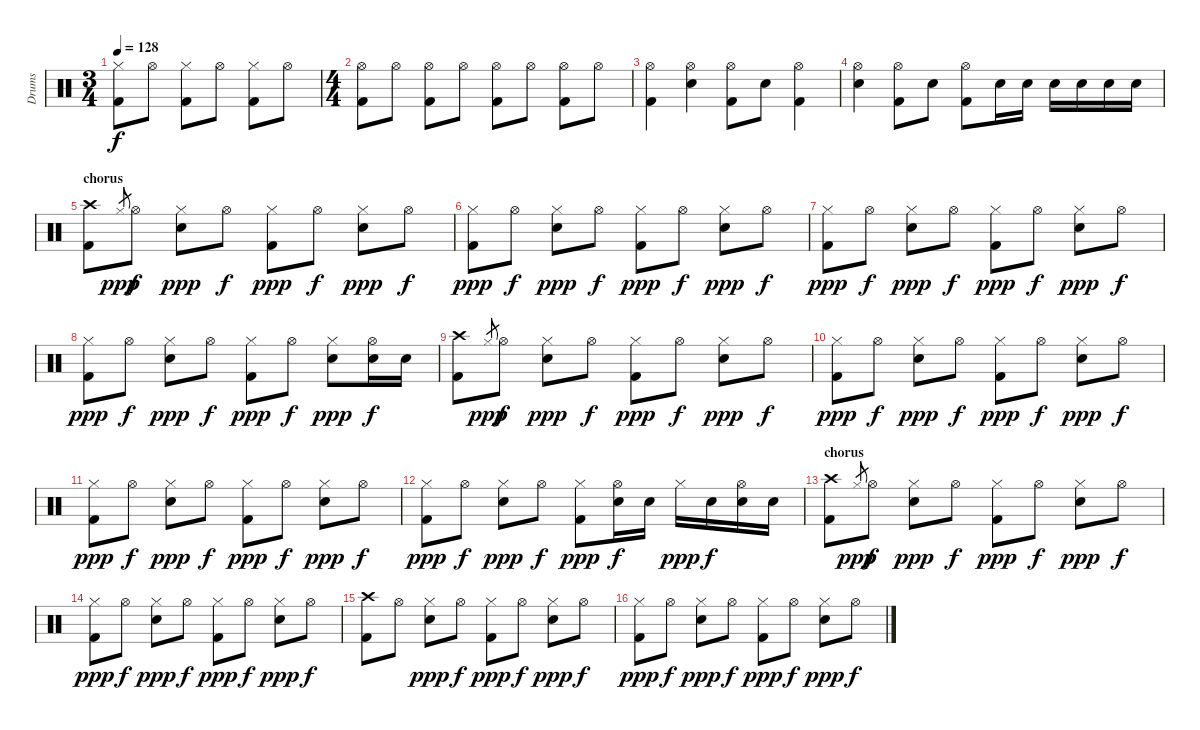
\track ("Drums" "Drums") {instrument percussion}
\staff {score}
\articulation defaults
\ts (3 4)
\tempo 128
\clef neutral
\ks c
("Hi-Hat (closed)" "Kick (hit) 2").8{dy f} "Hi-Hat (open)".8 ("Hi-Hat (closed)" "Kick (hit) 2").8 "Hi-Hat (open)".8 ("Hi-Hat (closed)" "Kick (hit) 2").8 "Hi-Hat (open)".8 |
\ts (4 4)
("Hi-Hat (open)" "Kick (hit) 2").8 "Hi-Hat (open)".8 ("Hi-Hat (open)" "Kick (hit) 2").8 "Hi-Hat (open)".8 ("Hi-Hat (open)" "Kick (hit) 2").8 "Hi-Hat (open)".8 ("Hi-Hat (open)" "Kick (hit) 2").8 "Hi-Hat (open)".8 |
("Hi-Hat (open)" "Kick (hit) 2").4 ("Hi-Hat (open)" "Snare (hit) 2").4 ("Hi-Hat (open)" "Kick (hit) 2").8 "Snare (hit) 2".8 ("Hi-Hat (open)" "Kick (hit) 2").4 |
("Hi-Hat (open)" "Snare (hit) 2").4 ("Hi-Hat (open)" "Kick (hit) 2").8 "Snare (hit) 2".8 ("Hi-Hat (open)" "Kick (hit) 2").8 "Snare (hit) 2".16 "Snare (hit) 2".16 "Snare (hit) 2".16 "Snare (hit) 2".16 "Snare (hit) 2".16 "Snare (hit) 2".16 |
\section ("" "chorus")
("Crash high (hit)" "Kick (hit) 2").8 "Hi-Hat (closed)".8{gr dy ppp} "Hi-Hat (open)".8{dy f} ("Hi-Hat (closed)" "Snare (hit) 2").8{dy ppp} "Hi-Hat (open)".8{dy f} ("Hi-Hat (closed)" "Kick (hit) 2").8{dy ppp} "Hi-Hat (open)".8{dy f} ("Hi-Hat (closed)" "Snare (hit) 2").8{dy ppp} "Hi-Hat (open)".8{dy f} |
("Hi-Hat (closed)" "Kick (hit) 2").8{dy ppp} "Hi-Hat (open)".8{dy f} ("Hi-Hat (closed)" "Snare (hit) 2").8{dy ppp} "Hi-Hat (open)".8{dy f} ("Hi-Hat (closed)" "Kick (hit) 2").8{dy ppp} "Hi-Hat (open)".8{dy f} ("Hi-Hat (closed)" "Snare (hit) 2").8{dy ppp} "Hi-Hat (open)".8{dy f} |
("Hi-Hat (closed)" "Kick (hit) 2").8{dy ppp} "Hi-Hat (open)".8{dy f} ("Hi-Hat (closed)" "Snare (hit) 2").8{dy ppp} "Hi-Hat (open)".8{dy f} ("Hi-Hat (closed)" "Kick (hit) 2").8{dy ppp} "Hi-Hat (open)".8{dy f} ("Hi-Hat (closed)" "Snare (hit) 2").8{dy ppp} "Hi-Hat (open)".8{dy f} |
("Hi-Hat (closed)" "Kick (hit) 2").8{dy ppp} "Hi-Hat (open)".8{dy f} ("Hi-Hat (closed)" "Snare (hit) 2").8{dy ppp} "Hi-Hat (open)".8{dy f} ("Hi-Hat (closed)" "Kick (hit) 2").8{dy ppp} "Hi-Hat (open)".8{dy f} ("Hi-Hat (closed)" "Snare (hit) 2").8{dy ppp} ("Hi-Hat (open)" "Snare (hit) 2").16{dy f} "Snare (hit) 2".16 |
("Crash high (hit)" "Kick (hit) 2").8 "Hi-Hat (closed)".8{gr dy ppp} "Hi-Hat (open)".8{dy f} ("Hi-Hat (closed)" "Snare (hit) 2").8{dy ppp} "Hi-Hat (open)".8{dy f} ("Hi-Hat (closed)" "Kick (hit) 2").8{dy ppp} "Hi-Hat (open)".8{dy f} ("Hi-Hat (closed)" "Snare (hit) 2").8{dy ppp} "Hi-Hat (open)".8{dy f} |
("Hi-Hat (closed)" "Kick (hit) 2").8{dy ppp} "Hi-Hat (open)".8{dy f} ("Hi-Hat (closed)" "Snare (hit) 2").8{dy ppp} "Hi-Hat (open)".8{dy f} ("Hi-Hat (closed)" "Kick (hit) 2").8{dy ppp} "Hi-Hat (open)".8{dy f} ("Hi-Hat (closed)" "Snare (hit) 2").8{dy ppp} "Hi-Hat (open)".8{dy f} |
("Hi-Hat (closed)" "Kick (hit) 2").8{dy ppp} "Hi-Hat (open)".8{dy f} ("Hi-Hat (closed)" "Snare (hit) 2").8{dy ppp} "Hi-Hat (open)".8{dy f} ("Hi-Hat (closed)" "Kick (hit) 2").8{dy ppp} "Hi-Hat (open)".8{dy f} ("Hi-Hat (closed)" "Snare (hit) 2").8{dy ppp} "Hi-Hat (open)".8{dy f} |
("Hi-Hat (closed)" "Kick (hit) 2").8{dy ppp} "Hi-Hat (open)".8{dy f} ("Hi-Hat (closed)" "Snare (hit) 2").8{dy ppp} "Hi-Hat (open)".8{dy f} ("Hi-Hat (closed)" "Kick (hit) 2").8{dy ppp} ("Hi-Hat (open)" "Snare (hit) 2").16{dy f} "Snare (hit) 2".16 "Hi-Hat (closed)".16{dy ppp} "Snare (hit) 2".16{dy f} ("Hi-Hat (open)" "Snare (hit) 2").16 "Snare (hit) 2".16 |
\section ("" "chorus")
("Crash high (hit)" "Kick (hit) 2").8 "Hi-Hat (closed)".8{gr dy ppp} "Hi-Hat (open)".8{dy f} ("Hi-Hat (closed)" "Snare (hit) 2").8{dy ppp} "Hi-Hat (open)".8{dy f} ("Hi-Hat (closed)" "Kick (hit) 2").8{dy ppp} "Hi-Hat (open)".8{dy f} ("Hi-Hat (closed)" "Snare (hit) 2").8{dy ppp} "Hi-Hat (open)".8{dy f} |
("Hi-Hat (closed)" "Kick (hit) 2").8{dy ppp} "Hi-Hat (open)".8{dy f} ("Hi-Hat (closed)" "Snare (hit) 2").8{dy ppp} "Hi-Hat (open)".8{dy f} ("Hi-Hat (closed)" "Kick (hit) 2").8{dy ppp} "Hi-Hat (open)".8{dy f} ("Hi-Hat (closed)" "Snare (hit) 2").8{dy ppp} "Hi-Hat (open)".8{dy f} |
("Crash high (hit)" "Kick (hit) 2").8 "Hi-Hat (open)".8 ("Hi-Hat (closed)" "Snare (hit) 2").8{dy ppp} "Hi-Hat (open)".8{dy f} ("Hi-Hat (closed)" "Kick (hit) 2").8{dy ppp} "Hi-Hat (open)".8{dy f} ("Hi-Hat (closed)" "Snare (hit) 2").8{dy ppp} "Hi-Hat (open)".8{dy f} |
("Hi-Hat (closed)" "Kick (hit) 2").8{dy ppp} "Hi-Hat (open)".8{dy f} ("Hi-Hat (closed)" "Snare (hit) 2").8{dy ppp} "Hi-Hat (open)".8{dy f} ("Hi-Hat (closed)" "Kick (hit) 2").8{dy ppp} "Hi-Hat (open)".8{dy f} ("Hi-Hat (closed)" "Snare (hit) 2").8{dy ppp} "Hi-Hat (open)".8{dy f}
